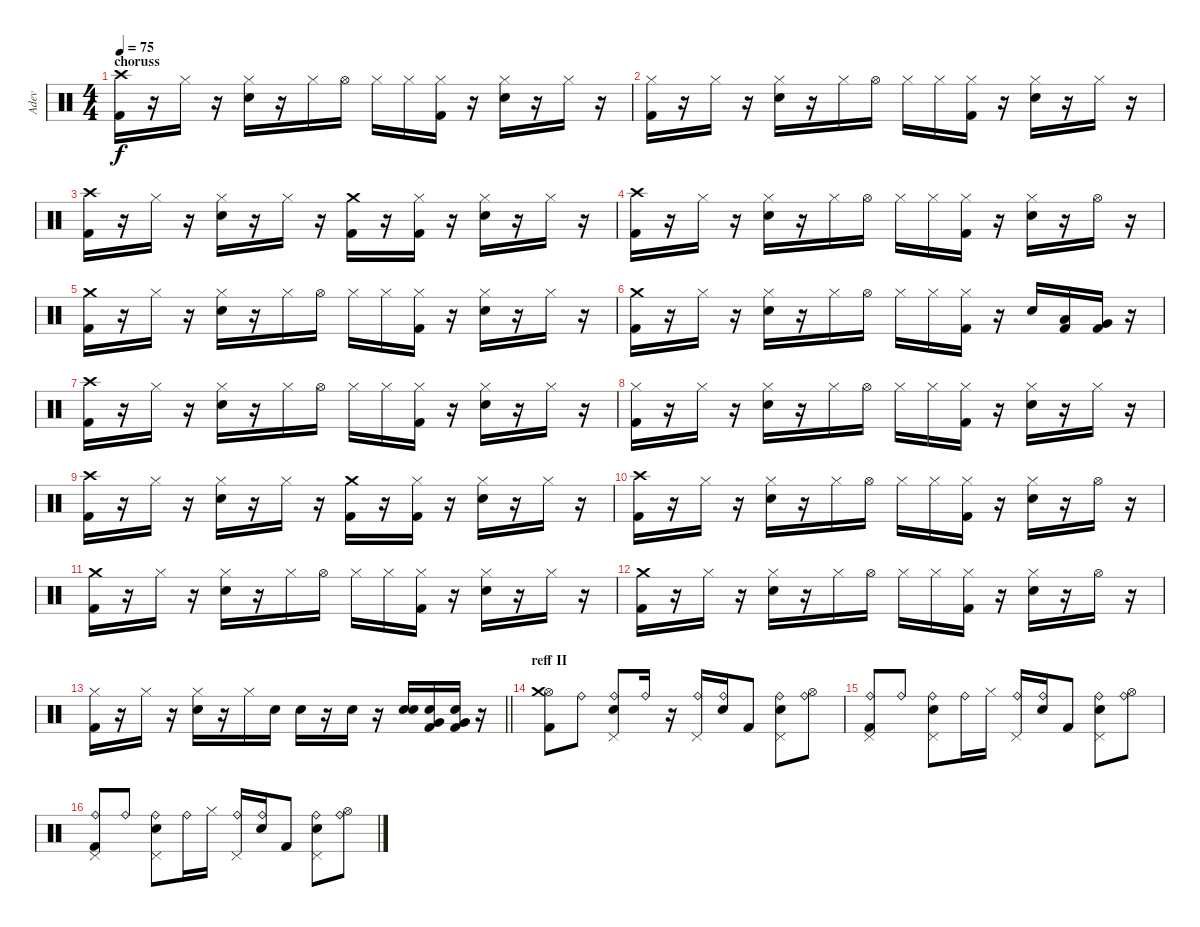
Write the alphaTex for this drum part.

\track ("Adev" "Adev") {instrument percussion}
\staff {score}
\articulation defaults
\ts (4 4)
\section ("" "choruss")
\tempo 75
\clef neutral
\ks c
("Crash high (hit)" "Kick (hit) 2").16{dy f} r.16 "Hi-Hat (closed)".16 r.16 ("Hi-Hat (closed)" "Electric Snare (hit)").16 r.16 "Hi-Hat (closed)".16 "Hi-Hat (open)".16 "Hi-Hat (closed)".16 "Hi-Hat (closed)".16 ("Hi-Hat (closed)" "Kick (hit) 2").16 r.16 ("Hi-Hat (closed)" "Electric Snare (hit)").16 r.16 "Hi-Hat (closed)".16 r.16 |
("Hi-Hat (closed)" "Kick (hit) 2").16 r.16 "Hi-Hat (closed)".16 r.16 ("Hi-Hat (closed)" "Electric Snare (hit)").16 r.16 "Hi-Hat (closed)".16 "Hi-Hat (open)".16 "Hi-Hat (closed)".16 "Hi-Hat (closed)".16 ("Hi-Hat (closed)" "Kick (hit) 2").16 r.16 ("Hi-Hat (closed)" "Electric Snare (hit)").16 r.16 "Hi-Hat (closed)".16 r.16 |
("Crash high (hit)" "Kick (hit) 2").16 r.16 "Hi-Hat (closed)".16 r.16 ("Hi-Hat (closed)" "Electric Snare (hit)").16 r.16 "Hi-Hat (closed)".16 r.16 ("Crash medium (hit)" "Kick (hit) 2").16 r.16 ("Hi-Hat (closed)" "Kick (hit) 2").16 r.16 ("Hi-Hat (closed)" "Electric Snare (hit)").16 r.16 "Hi-Hat (closed)".16 r.16 |
("Crash high (hit)" "Kick (hit) 2").16 r.16 "Hi-Hat (closed)".16 r.16 ("Hi-Hat (closed)" "Electric Snare (hit)").16 r.16 "Hi-Hat (closed)".16 "Hi-Hat (open)".16 "Hi-Hat (closed)".16 "Hi-Hat (closed)".16 ("Hi-Hat (closed)" "Kick (hit) 2").16 r.16 ("Hi-Hat (closed)" "Electric Snare (hit)").16 r.16 "Hi-Hat (open)".16 r.16 |
("Crash medium (hit)" "Kick (hit) 2").16 r.16 "Hi-Hat (closed)".16 r.16 ("Hi-Hat (closed)" "Electric Snare (hit)").16 r.16 "Hi-Hat (closed)".16 "Hi-Hat (open)".16 "Hi-Hat (closed)".16 "Hi-Hat (closed)".16 ("Hi-Hat (closed)" "Kick (hit) 2").16 r.16 ("Hi-Hat (closed)" "Electric Snare (hit)").16 r.16 "Hi-Hat (closed)".16 r.16 |
("Crash medium (hit)" "Kick (hit) 2").16 r.16 "Hi-Hat (closed)".16 r.16 ("Hi-Hat (closed)" "Electric Snare (hit)").16 r.16 "Hi-Hat (closed)".16 "Hi-Hat (open)".16 "Hi-Hat (closed)".16 "Hi-Hat (closed)".16 ("Hi-Hat (closed)" "Kick (hit) 2").16 r.16 "Electric Snare (hit)".16 ("Low Tom (hit)" "Kick (hit) 2").16 ("Very Low Tom (hit)" "Kick (hit) 2").16 r.16 |
("Crash high (hit)" "Kick (hit) 2").16 r.16 "Hi-Hat (closed)".16 r.16 ("Hi-Hat (closed)" "Electric Snare (hit)").16 r.16 "Hi-Hat (closed)".16 "Hi-Hat (open)".16 "Hi-Hat (closed)".16 "Hi-Hat (closed)".16 ("Hi-Hat (closed)" "Kick (hit) 2").16 r.16 ("Hi-Hat (closed)" "Electric Snare (hit)").16 r.16 "Hi-Hat (closed)".16 r.16 |
("Hi-Hat (closed)" "Kick (hit) 2").16 r.16 "Hi-Hat (closed)".16 r.16 ("Hi-Hat (closed)" "Electric Snare (hit)").16 r.16 "Hi-Hat (closed)".16 "Hi-Hat (open)".16 "Hi-Hat (closed)".16 "Hi-Hat (closed)".16 ("Hi-Hat (closed)" "Kick (hit) 2").16 r.16 ("Hi-Hat (closed)" "Electric Snare (hit)").16 r.16 "Hi-Hat (closed)".16 r.16 |
("Crash high (hit)" "Kick (hit) 2").16 r.16 "Hi-Hat (closed)".16 r.16 ("Hi-Hat (closed)" "Electric Snare (hit)").16 r.16 "Hi-Hat (closed)".16 r.16 ("Crash medium (hit)" "Kick (hit) 2").16 r.16 ("Hi-Hat (closed)" "Kick (hit) 2").16 r.16 ("Hi-Hat (closed)" "Electric Snare (hit)").16 r.16 "Hi-Hat (closed)".16 r.16 |
("Crash high (hit)" "Kick (hit) 2").16 r.16 "Hi-Hat (closed)".16 r.16 ("Hi-Hat (closed)" "Electric Snare (hit)").16 r.16 "Hi-Hat (closed)".16 "Hi-Hat (open)".16 "Hi-Hat (closed)".16 "Hi-Hat (closed)".16 ("Hi-Hat (closed)" "Kick (hit) 2").16 r.16 ("Hi-Hat (closed)" "Electric Snare (hit)").16 r.16 "Hi-Hat (open)".16 r.16 |
("Crash medium (hit)" "Kick (hit) 2").16 r.16 "Hi-Hat (closed)".16 r.16 ("Hi-Hat (closed)" "Electric Snare (hit)").16 r.16 "Hi-Hat (closed)".16 "Hi-Hat (open)".16 "Hi-Hat (closed)".16 "Hi-Hat (closed)".16 ("Hi-Hat (closed)" "Kick (hit) 2").16 r.16 ("Hi-Hat (closed)" "Electric Snare (hit)").16 r.16 "Hi-Hat (closed)".16 r.16 |
("Crash medium (hit)" "Kick (hit) 2").16 r.16 "Hi-Hat (closed)".16 r.16 ("Hi-Hat (closed)" "Electric Snare (hit)").16 r.16 "Hi-Hat (closed)".16 "Hi-Hat (open)".16 "Hi-Hat (closed)".16 "Hi-Hat (closed)".16 ("Hi-Hat (closed)" "Kick (hit) 2").16 r.16 ("Hi-Hat (closed)" "Electric Snare (hit)").16 r.16 "Hi-Hat (open)".16 r.16 |
\barLineRight lightlight
("Hi-Hat (closed)" "Kick (hit) 2").16 r.16 "Hi-Hat (closed)".16 r.16 ("Hi-Hat (closed)" "Electric Snare (hit)").16 r.16 "Hi-Hat (closed)".16 "Electric Snare (hit)".16 "Electric Snare (hit)".16 r.16 "Electric Snare (hit)".16 r.16 ("Electric Snare (hit)" "Electric Snare (hit)").16{bu 120} ("Electric Snare (hit)" "Very Low Tom (hit)" "Kick (hit) 2").16 ("Electric Snare (hit)" "Very Low Tom (hit)" "Kick (hit) 2").16 r.16 |
\section ("" "reff II")
("Hi-Hat (open)" "Crash medium (hit)" "Kick (hit) 2").8 "Ride (bell)".8 ("Pedal Hi-Hat (hit)" "Ride (bell)" "Electric Snare (hit)").8 "Ride (bell)".16 r.16 ("Pedal Hi-Hat (hit)" "Ride (bell)").16 ("Ride (bell)" "Electric Snare (hit)").16 "Kick (hit) 2".8 ("Pedal Hi-Hat (hit)" "Ride (bell)" "Electric Snare (hit)").8 ("Hi-Hat (open)" "Ride (bell)").8 |
("Pedal Hi-Hat (hit)" "Ride (bell)" "Kick (hit) 2").8 "Ride (bell)".8 ("Pedal Hi-Hat (hit)" "Ride (bell)" "Electric Snare (hit)").8 "Ride (bell)".16 "Hi-Hat (closed)".16 ("Pedal Hi-Hat (hit)" "Ride (bell)").16 ("Ride (bell)" "Electric Snare (hit)").16 "Kick (hit) 2".8 ("Pedal Hi-Hat (hit)" "Ride (bell)" "Electric Snare (hit)").8 ("Ride (bell)" "Hi-Hat (open)").8 |
("Pedal Hi-Hat (hit)" "Ride (bell)" "Kick (hit) 2").8 "Ride (bell)".8 ("Pedal Hi-Hat (hit)" "Ride (bell)" "Electric Snare (hit)").8 "Ride (bell)".16 "Hi-Hat (closed)".16 ("Pedal Hi-Hat (hit)" "Ride (bell)").16 ("Ride (bell)" "Electric Snare (hit)").16 "Kick (hit) 2".8 ("Pedal Hi-Hat (hit)" "Ride (bell)" "Electric Snare (hit)").8 ("Ride (bell)" "Hi-Hat (open)").8
